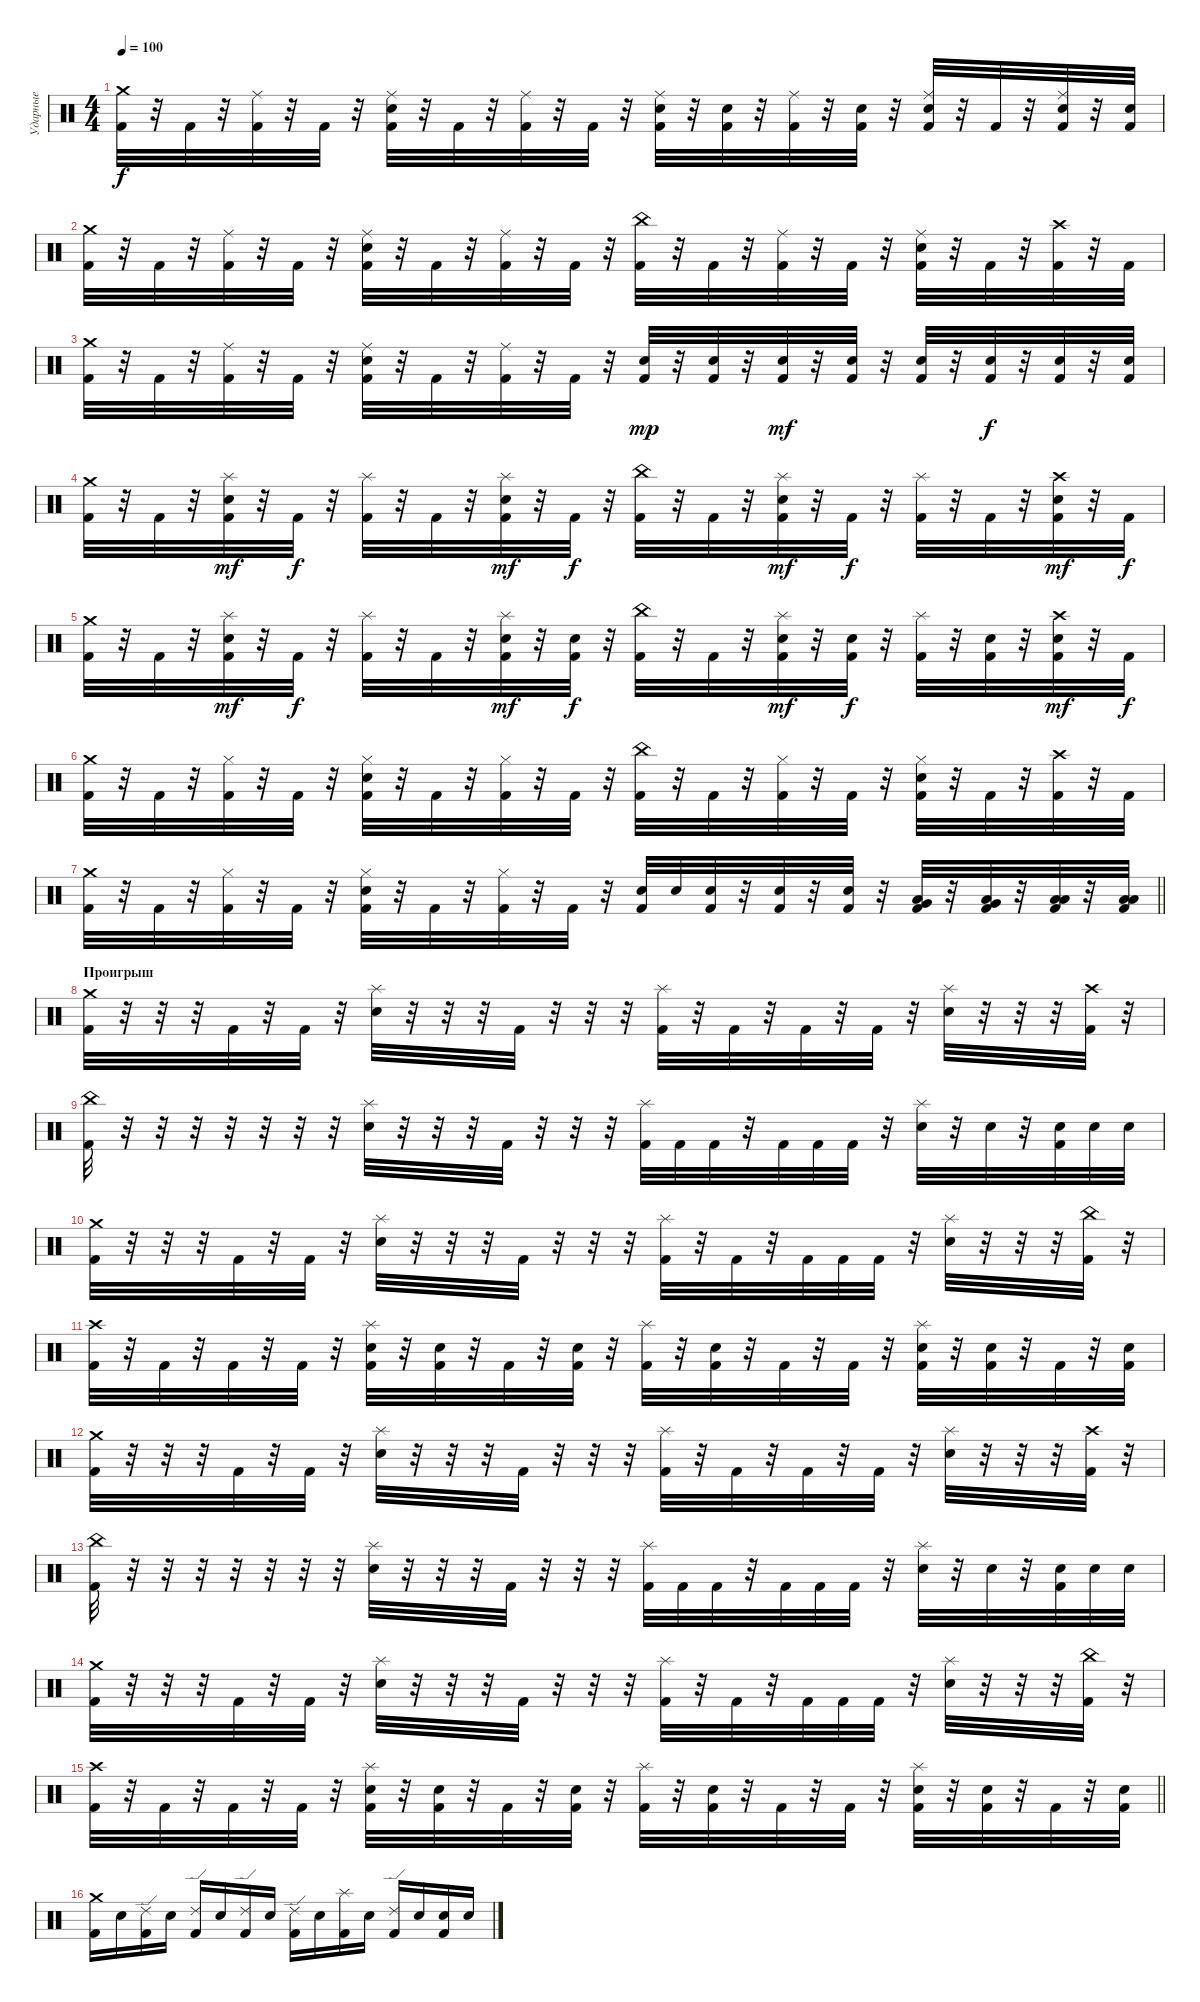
\track ("Ударные" "Ударные") {instrument percussion}
\staff {score}
\articulation defaults
\ts (4 4)
\tempo 100
\clef neutral
\ks c
("Crash medium (hit)" "Kick (hit) 2").32{dy f} r.32 "Kick (hit) 2".32 r.32 ("Ride (middle)" "Kick (hit) 2").32 r.32 "Kick (hit) 2".32 r.32 ("Ride (middle)" "Snare (hit) 2" "Kick (hit) 2").32 r.32 "Kick (hit) 2".32 r.32 ("Ride (middle)" "Kick (hit) 2").32 r.32 "Kick (hit) 2".32 r.32 ("Ride (middle)" "Snare (hit) 2" "Kick (hit) 2").32 r.32 ("Snare (hit) 2" "Kick (hit) 2").32 r.32 ("Ride (middle)" "Kick (hit) 2").32 r.32 ("Snare (hit) 2" "Kick (hit) 2").32 r.32 ("Ride (middle)" "Snare (hit) 2" "Kick (hit) 2").32 r.32 "Kick (hit) 2".32 r.32 ("Ride (middle)" "Snare (hit) 2" "Kick (hit) 2").32 r.32 ("Snare (hit) 2" "Kick (hit) 2").32 |
("Crash medium (hit)" "Kick (hit) 2").32 r.32 "Kick (hit) 2".32 r.32 ("Ride (middle)" "Kick (hit) 2").32 r.32 "Kick (hit) 2".32 r.32 ("Ride (middle)" "Snare (hit) 2" "Kick (hit) 2").32 r.32 "Kick (hit) 2".32 r.32 ("Ride (middle)" "Kick (hit) 2").32 r.32 "Kick (hit) 2".32 r.32 ("China (hit)" "Kick (hit) 2").32 r.32 "Kick (hit) 2".32 r.32 ("Ride (middle)" "Kick (hit) 2").32 r.32 "Kick (hit) 2".32 r.32 ("Ride (middle)" "Snare (hit) 2" "Kick (hit) 2").32 r.32 "Kick (hit) 2".32 r.32 ("Crash high (hit)" "Kick (hit) 2").32 r.32 "Kick (hit) 2".32 |
("Crash medium (hit)" "Kick (hit) 2").32 r.32 "Kick (hit) 2".32 r.32 ("Ride (middle)" "Kick (hit) 2").32 r.32 "Kick (hit) 2".32 r.32 ("Ride (middle)" "Snare (hit) 2" "Kick (hit) 2").32 r.32 "Kick (hit) 2".32 r.32 ("Ride (middle)" "Kick (hit) 2").32 r.32 "Kick (hit) 2".32 r.32 ("Snare (hit) 2" "Kick (hit) 2").32{dy mp} r.32 ("Snare (hit) 2" "Kick (hit) 2").32 r.32 ("Snare (hit) 2" "Kick (hit) 2").32{dy mf} r.32 ("Snare (hit) 2" "Kick (hit) 2").32 r.32 ("Snare (hit) 2" "Kick (hit) 2").32 r.32 ("Snare (hit) 2" "Kick (hit) 2").32{dy f} r.32 ("Snare (hit) 2" "Kick (hit) 2").32 r.32 ("Snare (hit) 2" "Kick (hit) 2").32 |
("Crash medium (hit)" "Kick (hit) 2").32 r.32 "Kick (hit) 2".32 r.32 ("Splash (hit)" "Snare (hit) 2" "Kick (hit) 2").32{dy mf} r.32 "Kick (hit) 2".32{dy f} r.32 ("Splash (hit)" "Kick (hit) 2").32 r.32 "Kick (hit) 2".32 r.32 ("Splash (hit)" "Snare (hit) 2" "Kick (hit) 2").32{dy mf} r.32 "Kick (hit) 2".32{dy f} r.32 ("China (hit)" "Kick (hit) 2").32 r.32 "Kick (hit) 2".32 r.32 ("Splash (hit)" "Snare (hit) 2" "Kick (hit) 2").32{dy mf} r.32 "Kick (hit) 2".32{dy f} r.32 ("Splash (hit)" "Kick (hit) 2").32 r.32 "Kick (hit) 2".32 r.32 ("Crash high (hit)" "Snare (hit) 2" "Kick (hit) 2").32{dy mf} r.32 "Kick (hit) 2".32{dy f} |
("Crash medium (hit)" "Kick (hit) 2").32 r.32 "Kick (hit) 2".32 r.32 ("Splash (hit)" "Snare (hit) 2" "Kick (hit) 2").32{dy mf} r.32 "Kick (hit) 2".32{dy f} r.32 ("Splash (hit)" "Kick (hit) 2").32 r.32 "Kick (hit) 2".32 r.32 ("Splash (hit)" "Snare (hit) 2" "Kick (hit) 2").32{dy mf} r.32 ("Snare (hit) 2" "Kick (hit) 2").32{dy f} r.32 ("China (hit)" "Kick (hit) 2").32 r.32 "Kick (hit) 2".32 r.32 ("Splash (hit)" "Snare (hit) 2" "Kick (hit) 2").32{dy mf} r.32 ("Snare (hit) 2" "Kick (hit) 2").32{dy f} r.32 ("Splash (hit)" "Kick (hit) 2").32 r.32 ("Snare (hit) 2" "Kick (hit) 2").32 r.32 ("Crash high (hit)" "Snare (hit) 2" "Kick (hit) 2").32{dy mf} r.32 "Kick (hit) 2".32{dy f} |
("Crash medium (hit)" "Kick (hit) 2").32 r.32 "Kick (hit) 2".32 r.32 ("Hi-Hat (closed)" "Kick (hit) 2").32 r.32 "Kick (hit) 2".32 r.32 ("Hi-Hat (closed)" "Snare (hit) 2" "Kick (hit) 2").32 r.32 "Kick (hit) 2".32 r.32 ("Hi-Hat (closed)" "Kick (hit) 2").32 r.32 "Kick (hit) 2".32 r.32 ("China (hit)" "Kick (hit) 2").32 r.32 "Kick (hit) 2".32 r.32 ("Hi-Hat (closed)" "Kick (hit) 2").32 r.32 "Kick (hit) 2".32 r.32 ("Hi-Hat (closed)" "Snare (hit) 2" "Kick (hit) 2").32 r.32 "Kick (hit) 2".32 r.32 ("Crash high (hit)" "Kick (hit) 2").32 r.32 "Kick (hit) 2".32 |
\barLineRight lightlight
("Crash medium (hit)" "Kick (hit) 2").32 r.32 "Kick (hit) 2".32 r.32 ("Hi-Hat (closed)" "Kick (hit) 2").32 r.32 "Kick (hit) 2".32 r.32 ("Hi-Hat (closed)" "Snare (hit) 2" "Kick (hit) 2").32 r.32 "Kick (hit) 2".32 r.32 ("Hi-Hat (closed)" "Kick (hit) 2").32 r.32 "Kick (hit) 2".32 r.32 ("Snare (hit) 2" "Kick (hit) 2").32 "Snare (hit) 2".32 ("Snare (hit) 2" "Kick (hit) 2").32 r.32 ("Snare (hit) 2" "Kick (hit) 2").32 r.32 ("Snare (hit) 2" "Kick (hit) 2").32 r.32 ("Low Tom (hit)" "Very Low Tom (hit)" "Kick (hit) 2").32 r.32 ("Low Tom (hit)" "Very Low Tom (hit)" "Kick (hit) 2").32 r.32 ("Low Tom (hit)" "Low Floor Tom (hit)" "Kick (hit) 2").32 r.32 ("Low Tom (hit)" "Low Floor Tom (hit)" "Kick (hit) 2").32 |
\section ("" "Проигрыш")
("Crash medium (hit)" "Kick (hit) 2").32 r.32 r.32 r.32 "Kick (hit) 2".32 r.32 "Kick (hit) 2".32 r.32 ("Splash (hit)" "Snare (hit) 2").32 r.32 r.32 r.32 "Kick (hit) 2".32 r.32 r.32 r.32 ("Splash (hit)" "Kick (hit) 2").32 r.32 "Kick (hit) 2".32 r.32 "Kick (hit) 2".32 r.32 "Kick (hit) 2".32 r.32 ("Splash (hit)" "Snare (hit) 2").32 r.32 r.32 r.32 ("Crash high (hit)" "Kick (hit) 2").32 r.32 |
("China (hit)" "Kick (hit) 2").32 r.32 r.32 r.32 r.32 r.32 r.32 r.32 ("Splash (hit)" "Snare (hit) 2").32 r.32 r.32 r.32 "Kick (hit) 2".32 r.32 r.32 r.32 ("Splash (hit)" "Kick (hit) 2").32 "Kick (hit) 2".32 "Kick (hit) 2".32 r.32 "Kick (hit) 2".32 "Kick (hit) 2".32 "Kick (hit) 2".32 r.32 ("Splash (hit)" "Snare (hit) 2").32 r.32 "Snare (hit) 2".32 r.32 ("Snare (hit) 2" "Kick (hit) 2").32 "Snare (hit) 2".32 "Snare (hit) 2".32 |
("Crash medium (hit)" "Kick (hit) 2").32 r.32 r.32 r.32 "Kick (hit) 2".32 r.32 "Kick (hit) 2".32 r.32 ("Splash (hit)" "Snare (hit) 2").32 r.32 r.32 r.32 "Kick (hit) 2".32 r.32 r.32 r.32 ("Splash (hit)" "Kick (hit) 2").32 r.32 "Kick (hit) 2".32 r.32 "Kick (hit) 2".32 "Kick (hit) 2".32 "Kick (hit) 2".32 r.32 ("Splash (hit)" "Snare (hit) 2").32 r.32 r.32 r.32 ("China (hit)" "Kick (hit) 2").32 r.32 |
("Crash high (hit)" "Kick (hit) 2").32 r.32 "Kick (hit) 2".32 r.32 "Kick (hit) 2".32 r.32 "Kick (hit) 2".32 r.32 ("Splash (hit)" "Snare (hit) 2" "Kick (hit) 2").32 r.32 ("Snare (hit) 2" "Kick (hit) 2").32 r.32 "Kick (hit) 2".32 r.32 ("Snare (hit) 2" "Kick (hit) 2").32 r.32 ("Splash (hit)" "Kick (hit) 2").32 r.32 ("Snare (hit) 2" "Kick (hit) 2").32 r.32 "Kick (hit) 2".32 r.32 "Kick (hit) 2".32 r.32 ("Splash (hit)" "Snare (hit) 2" "Kick (hit) 2").32 r.32 ("Snare (hit) 2" "Kick (hit) 2").32 r.32 "Kick (hit) 2".32 r.32 ("Snare (hit) 2" "Kick (hit) 2").32 |
("Crash medium (hit)" "Kick (hit) 2").32 r.32 r.32 r.32 "Kick (hit) 2".32 r.32 "Kick (hit) 2".32 r.32 ("Splash (hit)" "Snare (hit) 2").32 r.32 r.32 r.32 "Kick (hit) 2".32 r.32 r.32 r.32 ("Splash (hit)" "Kick (hit) 2").32 r.32 "Kick (hit) 2".32 r.32 "Kick (hit) 2".32 r.32 "Kick (hit) 2".32 r.32 ("Splash (hit)" "Snare (hit) 2").32 r.32 r.32 r.32 ("Crash high (hit)" "Kick (hit) 2").32 r.32 |
("China (hit)" "Kick (hit) 2").32 r.32 r.32 r.32 r.32 r.32 r.32 r.32 ("Splash (hit)" "Snare (hit) 2").32 r.32 r.32 r.32 "Kick (hit) 2".32 r.32 r.32 r.32 ("Splash (hit)" "Kick (hit) 2").32 "Kick (hit) 2".32 "Kick (hit) 2".32 r.32 "Kick (hit) 2".32 "Kick (hit) 2".32 "Kick (hit) 2".32 r.32 ("Splash (hit)" "Snare (hit) 2").32 r.32 "Snare (hit) 2".32 r.32 ("Snare (hit) 2" "Kick (hit) 2").32 "Snare (hit) 2".32 "Snare (hit) 2".32 |
("Crash medium (hit)" "Kick (hit) 2").32 r.32 r.32 r.32 "Kick (hit) 2".32 r.32 "Kick (hit) 2".32 r.32 ("Splash (hit)" "Snare (hit) 2").32 r.32 r.32 r.32 "Kick (hit) 2".32 r.32 r.32 r.32 ("Splash (hit)" "Kick (hit) 2").32 r.32 "Kick (hit) 2".32 r.32 "Kick (hit) 2".32 "Kick (hit) 2".32 "Kick (hit) 2".32 r.32 ("Splash (hit)" "Snare (hit) 2").32 r.32 r.32 r.32 ("China (hit)" "Kick (hit) 2").32 r.32 |
\barLineRight lightlight
("Crash high (hit)" "Kick (hit) 2").32 r.32 "Kick (hit) 2".32 r.32 "Kick (hit) 2".32 r.32 "Kick (hit) 2".32 r.32 ("Splash (hit)" "Snare (hit) 2" "Kick (hit) 2").32 r.32 ("Snare (hit) 2" "Kick (hit) 2").32 r.32 "Kick (hit) 2".32 r.32 ("Snare (hit) 2" "Kick (hit) 2").32 r.32 ("Splash (hit)" "Kick (hit) 2").32 r.32 ("Snare (hit) 2" "Kick (hit) 2").32 r.32 "Kick (hit) 2".32 r.32 "Kick (hit) 2".32 r.32 ("Splash (hit)" "Snare (hit) 2" "Kick (hit) 2").32 r.32 ("Snare (hit) 2" "Kick (hit) 2").32 r.32 "Kick (hit) 2".32 r.32 ("Snare (hit) 2" "Kick (hit) 2").32 |
("Crash medium (hit)" "Kick (hit) 2").16 "Snare (hit) 2".16 ("Ride (edge) 2" "Kick (hit) 2").16 "Snare (hit) 2".16 ("Ride (edge) 2" "Kick (hit) 2").16 "Snare (hit) 2".16 ("Ride (edge) 2" "Kick (hit) 2").16 "Snare (hit) 2".16 ("Ride (edge) 2" "Kick (hit) 2").16 "Snare (hit) 2".16 ("Splash (hit)" "Kick (hit) 2").16 "Snare (hit) 2".16 ("Ride (edge) 2" "Kick (hit) 2").16 "Snare (hit) 2".16 ("Snare (hit) 2" "Kick (hit) 2").16 "Snare (hit) 2".16
